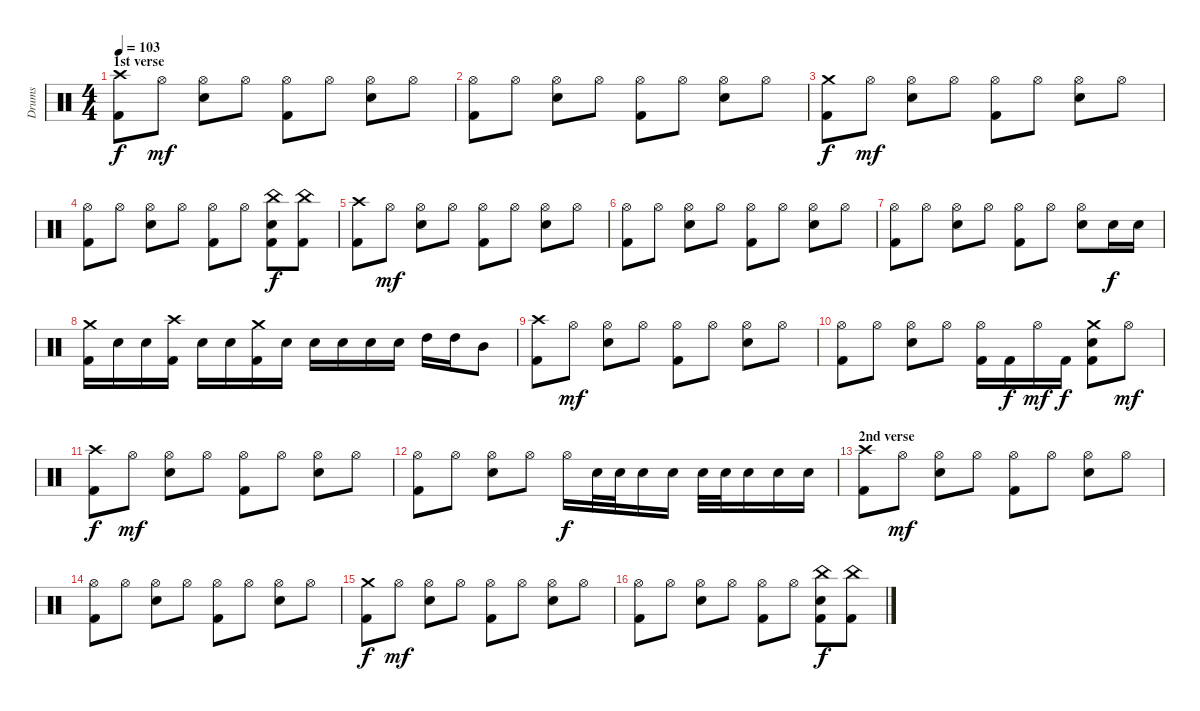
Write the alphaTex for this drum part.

\track ("Drums" "Drums") {instrument percussion}
\staff {score}
\articulation defaults
\ts (4 4)
\section ("" "1st verse")
\tempo 103
\clef neutral
\ks c
("Crash high (hit)" "Kick (hit) 2").8{dy f} "Hi-Hat (open)".8{dy mf} ("Hi-Hat (open)" "Electric Snare (hit)").8 "Hi-Hat (open)".8 ("Hi-Hat (open)" "Kick (hit) 2").8 "Hi-Hat (open)".8 ("Hi-Hat (open)" "Electric Snare (hit)").8 "Hi-Hat (open)".8 |
("Hi-Hat (open)" "Kick (hit) 2").8 "Hi-Hat (open)".8 ("Hi-Hat (open)" "Electric Snare (hit)").8 "Hi-Hat (open)".8 ("Hi-Hat (open)" "Kick (hit) 2").8 "Hi-Hat (open)".8 ("Hi-Hat (open)" "Electric Snare (hit)").8 "Hi-Hat (open)".8 |
("Crash medium (hit)" "Kick (hit) 2").8{dy f} "Hi-Hat (open)".8{dy mf} ("Hi-Hat (open)" "Electric Snare (hit)").8 "Hi-Hat (open)".8 ("Hi-Hat (open)" "Kick (hit) 2").8 "Hi-Hat (open)".8 ("Hi-Hat (open)" "Electric Snare (hit)").8 "Hi-Hat (open)".8 |
("Hi-Hat (open)" "Kick (hit) 2").8 "Hi-Hat (open)".8 ("Hi-Hat (open)" "Electric Snare (hit)").8 "Hi-Hat (open)".8 ("Hi-Hat (open)" "Kick (hit) 2").8 "Hi-Hat (open)".8 ("China (hit)" "Electric Snare (hit)" "Kick (hit) 2").8{dy f} ("China (hit)" "Kick (hit) 2").8 |
("Crash high (hit)" "Kick (hit) 2").8 "Hi-Hat (open)".8{dy mf} ("Hi-Hat (open)" "Electric Snare (hit)").8 "Hi-Hat (open)".8 ("Hi-Hat (open)" "Kick (hit) 2").8 "Hi-Hat (open)".8 ("Hi-Hat (open)" "Electric Snare (hit)").8 "Hi-Hat (open)".8 |
("Hi-Hat (open)" "Kick (hit) 2").8 "Hi-Hat (open)".8 ("Hi-Hat (open)" "Electric Snare (hit)").8 "Hi-Hat (open)".8 ("Hi-Hat (open)" "Kick (hit) 2").8 "Hi-Hat (open)".8 ("Hi-Hat (open)" "Electric Snare (hit)").8 "Hi-Hat (open)".8 |
("Hi-Hat (open)" "Kick (hit) 2").8 "Hi-Hat (open)".8 ("Hi-Hat (open)" "Electric Snare (hit)").8 "Hi-Hat (open)".8 ("Hi-Hat (open)" "Kick (hit) 2").8 "Hi-Hat (open)".8 ("Hi-Hat (open)" "Electric Snare (hit)").8 "Electric Snare (hit)".16{dy f} "Electric Snare (hit)".16 |
("Crash medium (hit)" "Kick (hit) 2").16 "Electric Snare (hit)".16 "Electric Snare (hit)".16 ("Crash high (hit)" "Kick (hit) 2").16 "Electric Snare (hit)".16 "Electric Snare (hit)".16 ("Crash medium (hit)" "Kick (hit) 2").16 "Electric Snare (hit)".16 "Electric Snare (hit)".16 "Electric Snare (hit)".16 "Electric Snare (hit)".16 "Electric Snare (hit)".16 "High Tom (hit)".16 "High Tom (hit)".16 "Mid Tom (hit)".8 |
("Crash high (hit)" "Kick (hit) 2").8 "Hi-Hat (open)".8{dy mf} ("Hi-Hat (open)" "Electric Snare (hit)").8 "Hi-Hat (open)".8 ("Hi-Hat (open)" "Kick (hit) 2").8 "Hi-Hat (open)".8 ("Hi-Hat (open)" "Electric Snare (hit)").8 "Hi-Hat (open)".8 |
("Hi-Hat (open)" "Kick (hit) 2").8 "Hi-Hat (open)".8 ("Hi-Hat (open)" "Electric Snare (hit)").8 "Hi-Hat (open)".8 ("Hi-Hat (open)" "Kick (hit) 2").16 "Kick (hit) 2".16{dy f} "Hi-Hat (open)".16{dy mf} "Kick (hit) 2".16{dy f} ("Crash medium (hit)" "Electric Snare (hit)" "Kick (hit) 2").8 "Hi-Hat (open)".8{dy mf} |
("Crash high (hit)" "Kick (hit) 2").8{dy f} "Hi-Hat (open)".8{dy mf} ("Hi-Hat (open)" "Electric Snare (hit)").8 "Hi-Hat (open)".8 ("Hi-Hat (open)" "Kick (hit) 2").8 "Hi-Hat (open)".8 ("Hi-Hat (open)" "Electric Snare (hit)").8 "Hi-Hat (open)".8 |
("Hi-Hat (open)" "Kick (hit) 2").8 "Hi-Hat (open)".8 ("Hi-Hat (open)" "Electric Snare (hit)").8 "Hi-Hat (open)".8 "Hi-Hat (open)".16{dy f} "Electric Snare (hit)".32 "Electric Snare (hit)".32 "Electric Snare (hit)".16 "Electric Snare (hit)".16 "Electric Snare (hit)".32 "Electric Snare (hit)".32 "Electric Snare (hit)".16 "Electric Snare (hit)".16 "Electric Snare (hit)".16 |
\section ("" "2nd verse")
("Crash high (hit)" "Kick (hit) 2").8 "Hi-Hat (open)".8{dy mf} ("Hi-Hat (open)" "Electric Snare (hit)").8 "Hi-Hat (open)".8 ("Hi-Hat (open)" "Kick (hit) 2").8 "Hi-Hat (open)".8 ("Hi-Hat (open)" "Electric Snare (hit)").8 "Hi-Hat (open)".8 |
("Hi-Hat (open)" "Kick (hit) 2").8 "Hi-Hat (open)".8 ("Hi-Hat (open)" "Electric Snare (hit)").8 "Hi-Hat (open)".8 ("Hi-Hat (open)" "Kick (hit) 2").8 "Hi-Hat (open)".8 ("Hi-Hat (open)" "Electric Snare (hit)").8 "Hi-Hat (open)".8 |
("Crash medium (hit)" "Kick (hit) 2").8{dy f} "Hi-Hat (open)".8{dy mf} ("Hi-Hat (open)" "Electric Snare (hit)").8 "Hi-Hat (open)".8 ("Hi-Hat (open)" "Kick (hit) 2").8 "Hi-Hat (open)".8 ("Hi-Hat (open)" "Electric Snare (hit)").8 "Hi-Hat (open)".8 |
("Hi-Hat (open)" "Kick (hit) 2").8 "Hi-Hat (open)".8 ("Hi-Hat (open)" "Electric Snare (hit)").8 "Hi-Hat (open)".8 ("Hi-Hat (open)" "Kick (hit) 2").8 "Hi-Hat (open)".8 ("China (hit)" "Electric Snare (hit)" "Kick (hit) 2").8{dy f} ("China (hit)" "Kick (hit) 2").8
